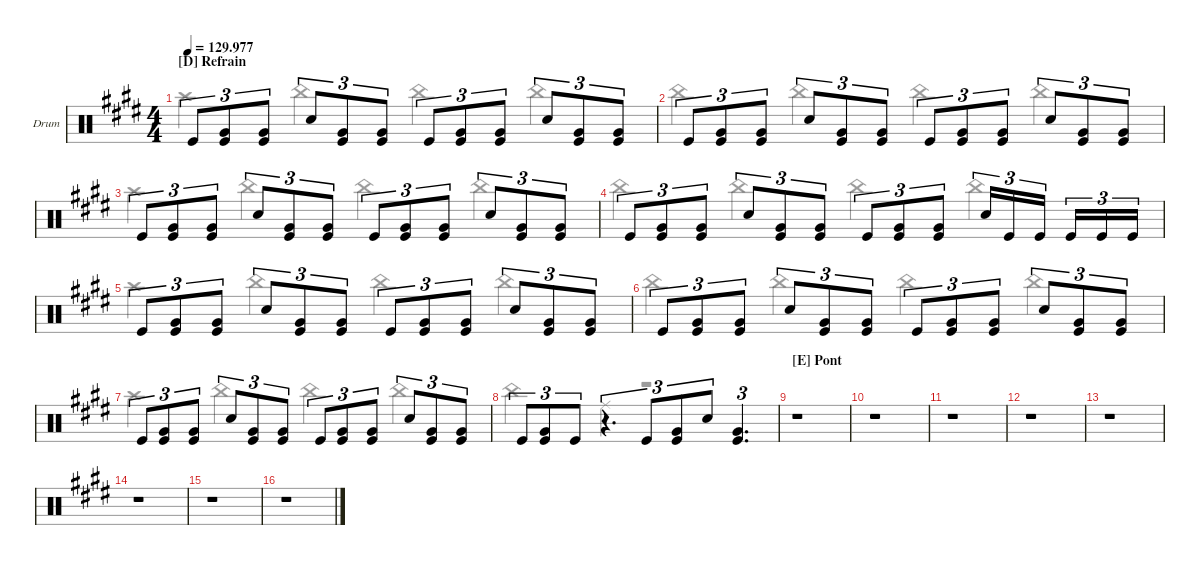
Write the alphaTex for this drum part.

\defaultSystemsLayout 4
\hideDynamics
\bracketExtendMode nobrackets
\firstSystemTrackNameOrientation horizontal
\otherSystemsTrackNameOrientation horizontal
\track ("BATTERIE" "Drum") {defaultSystemsLayout 4 instrument percussion}
\staff {score}
\articulation defaults
\voice
\ts (4 4)
\section ("D" "Refrain")
\tempo
129.977
\accidentals auto
\clef neutral
\ottava regular
\simile none
\ks e "Kick (hit)".8{tu (3 2) dy mf}
("Kick (hit)" "Very Low Tom (hit)").8{tu (3 2)} ("Kick (hit)" "Very Low Tom (hit)").8{tu (3 2)} "Snare (hit) 2".8{tu (3 2)} ("Kick (hit)" "Very Low Tom (hit)").8{tu (3 2)} ("Kick (hit)" "Very Low Tom (hit)").8{tu (3 2)} "Kick (hit)".8{tu (3 2)} ("Kick (hit)" "Very Low Tom (hit)").8{tu (3 2)} ("Kick (hit)" "Very Low Tom (hit)").8{tu (3 2)} "Snare (hit) 2".8{tu (3 2)} ("Kick (hit)" "Very Low Tom (hit)").8{tu (3 2)} ("Kick (hit)" "Very Low Tom (hit)").8{tu (3 2)} |
"Kick (hit)".8{tu (3 2)} ("Kick (hit)" "Very Low Tom (hit)").8{tu (3 2)} ("Kick (hit)" "Very Low Tom (hit)").8{tu (3 2)} "Snare (hit) 2".8{tu (3 2)} ("Kick (hit)" "Very Low Tom (hit)").8{tu (3 2)} ("Kick (hit)" "Very Low Tom (hit)").8{tu (3 2)} "Kick (hit)".8{tu (3 2)} ("Kick (hit)" "Very Low Tom (hit)").8{tu (3 2)} ("Kick (hit)" "Very Low Tom (hit)").8{tu (3 2)} "Snare (hit) 2".8{tu (3 2)} ("Kick (hit)" "Very Low Tom (hit)").8{tu (3 2)} ("Kick (hit)" "Very Low Tom (hit)").8{tu (3 2)} |
"Kick (hit)".8{tu (3 2)} ("Kick (hit)" "Very Low Tom (hit)").8{tu (3 2)} ("Kick (hit)" "Very Low Tom (hit)").8{tu (3 2)} "Snare (hit) 2".8{tu (3 2)} ("Kick (hit)" "Very Low Tom (hit)").8{tu (3 2)} ("Kick (hit)" "Very Low Tom (hit)").8{tu (3 2)} "Kick (hit)".8{tu (3 2)} ("Kick (hit)" "Very Low Tom (hit)").8{tu (3 2)} ("Kick (hit)" "Very Low Tom (hit)").8{tu (3 2)} "Snare (hit) 2".8{tu (3 2)} ("Kick (hit)" "Very Low Tom (hit)").8{tu (3 2)} ("Kick (hit)" "Very Low Tom (hit)").8{tu (3 2)} |
"Kick (hit)".8{tu (3 2)} ("Kick (hit)" "Very Low Tom (hit)").8{tu (3 2)} ("Kick (hit)" "Very Low Tom (hit)").8{tu (3 2)} "Snare (hit) 2".8{tu (3 2)} ("Kick (hit)" "Very Low Tom (hit)").8{tu (3 2)} ("Kick (hit)" "Very Low Tom (hit)").8{tu (3 2)} "Kick (hit)".8{tu (3 2)} ("Kick (hit)" "Very Low Tom (hit)").8{tu (3 2)} ("Kick (hit)" "Very Low Tom (hit)").8{tu (3 2)} "Snare (hit) 2".16{tu (3 2)} "Kick (hit)".16{tu (3 2)} "Kick (hit)".16{tu (3 2)} "Kick (hit)".16{tu (3 2)} "Kick (hit)".16{tu (3 2)} "Kick (hit)".16{tu (3 2)} |
"Kick (hit)".8{tu (3 2)} ("Kick (hit)" "Very Low Tom (hit)").8{tu (3 2)} ("Kick (hit)" "Very Low Tom (hit)").8{tu (3 2)} "Snare (hit) 2".8{tu (3 2)} ("Kick (hit)" "Very Low Tom (hit)").8{tu (3 2)} ("Kick (hit)" "Very Low Tom (hit)").8{tu (3 2)} "Kick (hit)".8{tu (3 2)} ("Kick (hit)" "Very Low Tom (hit)").8{tu (3 2)} ("Kick (hit)" "Very Low Tom (hit)").8{tu (3 2)} "Snare (hit) 2".8{tu (3 2)} ("Kick (hit)" "Very Low Tom (hit)").8{tu (3 2)} ("Kick (hit)" "Very Low Tom (hit)").8{tu (3 2)} |
"Kick (hit)".8{tu (3 2)} ("Kick (hit)" "Very Low Tom (hit)").8{tu (3 2)} ("Kick (hit)" "Very Low Tom (hit)").8{tu (3 2)} "Snare (hit) 2".8{tu (3 2)} ("Kick (hit)" "Very Low Tom (hit)").8{tu (3 2)} ("Kick (hit)" "Very Low Tom (hit)").8{tu (3 2)} "Kick (hit)".8{tu (3 2)} ("Kick (hit)" "Very Low Tom (hit)").8{tu (3 2)} ("Kick (hit)" "Very Low Tom (hit)").8{tu (3 2)} "Snare (hit) 2".8{tu (3 2)} ("Kick (hit)" "Very Low Tom (hit)").8{tu (3 2)} ("Kick (hit)" "Very Low Tom (hit)").8{tu (3 2)} |
"Kick (hit)".8{tu (3 2)} ("Kick (hit)" "Very Low Tom (hit)").8{tu (3 2)} ("Kick (hit)" "Very Low Tom (hit)").8{tu (3 2)} "Snare (hit) 2".8{tu (3 2)} ("Kick (hit)" "Very Low Tom (hit)").8{tu (3 2)} ("Kick (hit)" "Very Low Tom (hit)").8{tu (3 2)} "Kick (hit)".8{tu (3 2)} ("Kick (hit)" "Very Low Tom (hit)").8{tu (3 2)} ("Kick (hit)" "Very Low Tom (hit)").8{tu (3 2)} "Snare (hit) 2".8{tu (3 2)} ("Kick (hit)" "Very Low Tom (hit)").8{tu (3 2)} ("Kick (hit)" "Very Low Tom (hit)").8{tu (3 2)} |
"Kick (hit)".8{tu (3 2)} ("Kick (hit)" "Very Low Tom (hit)").8{tu (3 2)} "Kick (hit)".8{tu (3 2)} r.4{d tu (3 2)} "Kick (hit)".8{tu (3 2)} ("Kick (hit)" "Very Low Tom (hit)").8{tu (3 2)} "Snare (hit) 2".8{tu (3 2)} ("Kick (hit)" "Very Low Tom (hit)").4{d tu (3 2)} |
\section ("E" "Pont")
r.1 |
r.1 |
r.1 |
r.1 |
r.1 |
r.1 |
r.1 |
r.1
\voice
\clef neutral
\ottava regular
\simile none
\ks e "Crash high (hit)".4{dy mf} "China (hit)".4 "China (hit)".4 "China (hit)".4
|
"China (hit)".4 "China (hit)".4 "China (hit)".4 "China (hit)".4 |
"Crash high (hit)".4 "China (hit)".4 "China (hit)".4 "China (hit)".4 |
"China (hit)".4 "China (hit)".4 "China (hit)".4 "China (hit)".4 |
"Crash high (hit)".4 "China (hit)".4 "China (hit)".4 "China (hit)".4 |
"China (hit)".4 "China (hit)".4 "China (hit)".4 "China (hit)".4 |
"Crash high (hit)".4 "China (hit)".4 "China (hit)".4 "China (hit)".4 |
"China (hit)".4 "Ride (middle)".4 r.2 |
|
|
|
|
|
|
|
